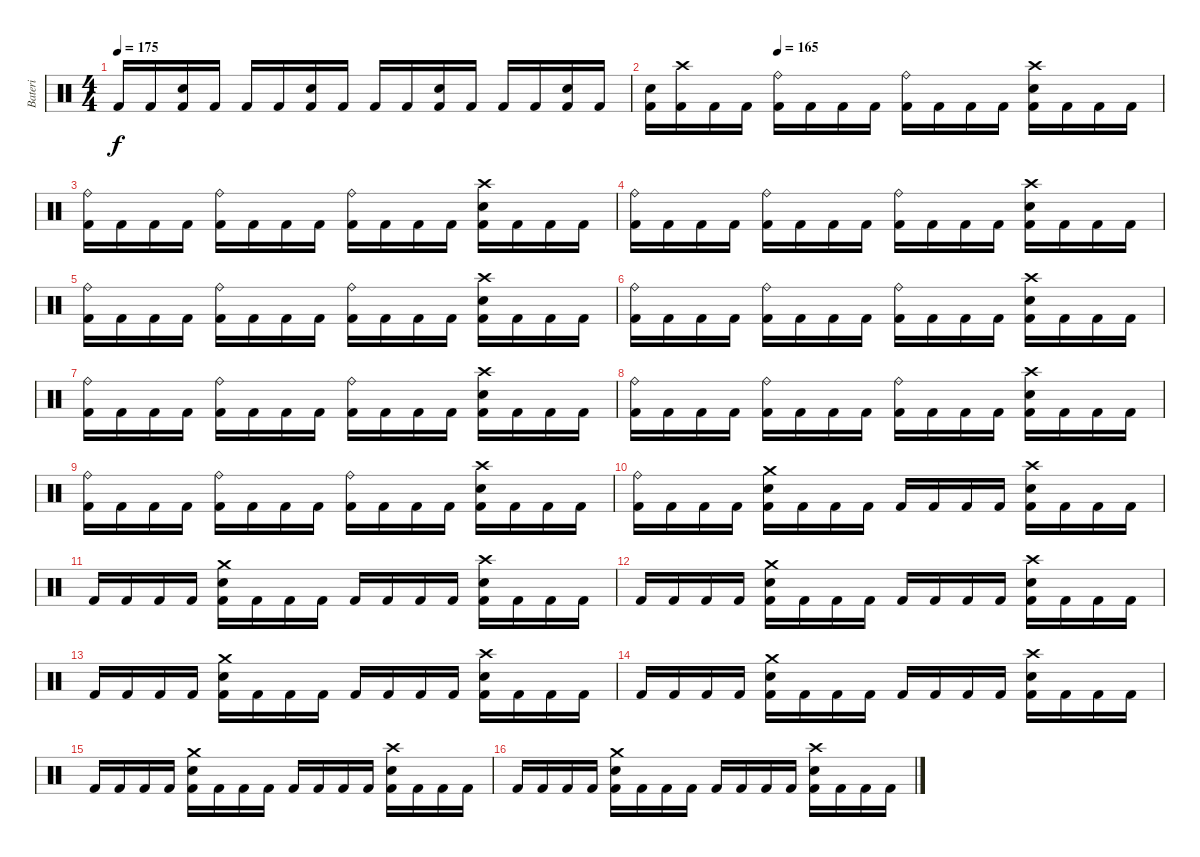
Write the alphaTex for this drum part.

\track ("Bateri" "Bateri") {instrument percussion}
\staff {score}
\articulation defaults
\ts (4 4)
\tempo 175
\clef neutral
\ks c "Kick (hit) 2".16{dy f} "Kick (hit) 2".16
("Snare (hit) 2" "Kick (hit) 2").16 "Kick (hit) 2".16 "Kick (hit) 2".16 "Kick (hit) 2".16 ("Snare (hit) 2" "Kick (hit) 2").16 "Kick (hit) 2".16 "Kick (hit) 2".16 "Kick (hit) 2".16 ("Snare (hit) 2" "Kick (hit) 2").16 "Kick (hit) 2".16 "Kick (hit) 2".16 "Kick (hit) 2".16 ("Snare (hit) 2" "Kick (hit) 2").16 "Kick (hit) 2".16 |
\section ("" "")
\tempo (165 0.25)
("Snare (hit) 2" "Kick (hit) 2").16 ("Crash high (hit)" "Kick (hit) 2").16 "Kick (hit) 2".16 "Kick (hit) 2".16 ("Ride (bell)" "Kick (hit) 2").16 "Kick (hit) 2".16 "Kick (hit) 2".16 "Kick (hit) 2".16 ("Ride (bell)" "Kick (hit) 2").16 "Kick (hit) 2".16 "Kick (hit) 2".16 "Kick (hit) 2".16 ("Snare (hit) 2" "Crash high (hit)" "Kick (hit) 2").16 "Kick (hit) 2".16 "Kick (hit) 2".16 "Kick (hit) 2".16 |
("Ride (bell)" "Kick (hit) 2").16 "Kick (hit) 2".16 "Kick (hit) 2".16 "Kick (hit) 2".16 ("Ride (bell)" "Kick (hit) 2").16 "Kick (hit) 2".16 "Kick (hit) 2".16 "Kick (hit) 2".16 ("Ride (bell)" "Kick (hit) 2").16 "Kick (hit) 2".16 "Kick (hit) 2".16 "Kick (hit) 2".16 ("Snare (hit) 2" "Crash high (hit)" "Kick (hit) 2").16 "Kick (hit) 2".16 "Kick (hit) 2".16 "Kick (hit) 2".16 |
("Ride (bell)" "Kick (hit) 2").16 "Kick (hit) 2".16 "Kick (hit) 2".16 "Kick (hit) 2".16 ("Ride (bell)" "Kick (hit) 2").16 "Kick (hit) 2".16 "Kick (hit) 2".16 "Kick (hit) 2".16 ("Ride (bell)" "Kick (hit) 2").16 "Kick (hit) 2".16 "Kick (hit) 2".16 "Kick (hit) 2".16 ("Snare (hit) 2" "Crash high (hit)" "Kick (hit) 2").16 "Kick (hit) 2".16 "Kick (hit) 2".16 "Kick (hit) 2".16 |
("Ride (bell)" "Kick (hit) 2").16 "Kick (hit) 2".16 "Kick (hit) 2".16 "Kick (hit) 2".16 ("Ride (bell)" "Kick (hit) 2").16 "Kick (hit) 2".16 "Kick (hit) 2".16 "Kick (hit) 2".16 ("Ride (bell)" "Kick (hit) 2").16 "Kick (hit) 2".16 "Kick (hit) 2".16 "Kick (hit) 2".16 ("Snare (hit) 2" "Crash high (hit)" "Kick (hit) 2").16 "Kick (hit) 2".16 "Kick (hit) 2".16 "Kick (hit) 2".16 |
("Ride (bell)" "Kick (hit) 2").16 "Kick (hit) 2".16 "Kick (hit) 2".16 "Kick (hit) 2".16 ("Ride (bell)" "Kick (hit) 2").16 "Kick (hit) 2".16 "Kick (hit) 2".16 "Kick (hit) 2".16 ("Ride (bell)" "Kick (hit) 2").16 "Kick (hit) 2".16 "Kick (hit) 2".16 "Kick (hit) 2".16 ("Snare (hit) 2" "Crash high (hit)" "Kick (hit) 2").16 "Kick (hit) 2".16 "Kick (hit) 2".16 "Kick (hit) 2".16 |
("Ride (bell)" "Kick (hit) 2").16 "Kick (hit) 2".16 "Kick (hit) 2".16 "Kick (hit) 2".16 ("Ride (bell)" "Kick (hit) 2").16 "Kick (hit) 2".16 "Kick (hit) 2".16 "Kick (hit) 2".16 ("Ride (bell)" "Kick (hit) 2").16 "Kick (hit) 2".16 "Kick (hit) 2".16 "Kick (hit) 2".16 ("Snare (hit) 2" "Crash high (hit)" "Kick (hit) 2").16 "Kick (hit) 2".16 "Kick (hit) 2".16 "Kick (hit) 2".16 |
("Ride (bell)" "Kick (hit) 2").16 "Kick (hit) 2".16 "Kick (hit) 2".16 "Kick (hit) 2".16 ("Ride (bell)" "Kick (hit) 2").16 "Kick (hit) 2".16 "Kick (hit) 2".16 "Kick (hit) 2".16 ("Ride (bell)" "Kick (hit) 2").16 "Kick (hit) 2".16 "Kick (hit) 2".16 "Kick (hit) 2".16 ("Snare (hit) 2" "Crash high (hit)" "Kick (hit) 2").16 "Kick (hit) 2".16 "Kick (hit) 2".16 "Kick (hit) 2".16 |
("Ride (bell)" "Kick (hit) 2").16 "Kick (hit) 2".16 "Kick (hit) 2".16 "Kick (hit) 2".16 ("Ride (bell)" "Kick (hit) 2").16 "Kick (hit) 2".16 "Kick (hit) 2".16 "Kick (hit) 2".16 ("Ride (bell)" "Kick (hit) 2").16 "Kick (hit) 2".16 "Kick (hit) 2".16 "Kick (hit) 2".16 ("Snare (hit) 2" "Crash high (hit)" "Kick (hit) 2").16 "Kick (hit) 2".16 "Kick (hit) 2".16 "Kick (hit) 2".16 |
("Ride (bell)" "Kick (hit) 2").16 "Kick (hit) 2".16 "Kick (hit) 2".16 "Kick (hit) 2".16 ("Crash medium (hit)" "Snare (hit) 2" "Kick (hit) 2").16 "Kick (hit) 2".16 "Kick (hit) 2".16 "Kick (hit) 2".16 "Kick (hit) 2".16 "Kick (hit) 2".16 "Kick (hit) 2".16 "Kick (hit) 2".16 ("Crash high (hit)" "Snare (hit) 2" "Kick (hit) 2").16 "Kick (hit) 2".16 "Kick (hit) 2".16 "Kick (hit) 2".16 |
"Kick (hit) 2".16 "Kick (hit) 2".16 "Kick (hit) 2".16 "Kick (hit) 2".16 ("Crash medium (hit)" "Snare (hit) 2" "Kick (hit) 2").16 "Kick (hit) 2".16 "Kick (hit) 2".16 "Kick (hit) 2".16 "Kick (hit) 2".16 "Kick (hit) 2".16 "Kick (hit) 2".16 "Kick (hit) 2".16 ("Crash high (hit)" "Snare (hit) 2" "Kick (hit) 2").16 "Kick (hit) 2".16 "Kick (hit) 2".16 "Kick (hit) 2".16 |
"Kick (hit) 2".16 "Kick (hit) 2".16 "Kick (hit) 2".16 "Kick (hit) 2".16 ("Crash medium (hit)" "Snare (hit) 2" "Kick (hit) 2").16 "Kick (hit) 2".16 "Kick (hit) 2".16 "Kick (hit) 2".16 "Kick (hit) 2".16 "Kick (hit) 2".16 "Kick (hit) 2".16 "Kick (hit) 2".16 ("Crash high (hit)" "Snare (hit) 2" "Kick (hit) 2").16 "Kick (hit) 2".16 "Kick (hit) 2".16 "Kick (hit) 2".16 |
"Kick (hit) 2".16 "Kick (hit) 2".16 "Kick (hit) 2".16 "Kick (hit) 2".16 ("Crash medium (hit)" "Snare (hit) 2" "Kick (hit) 2").16 "Kick (hit) 2".16 "Kick (hit) 2".16 "Kick (hit) 2".16 "Kick (hit) 2".16 "Kick (hit) 2".16 "Kick (hit) 2".16 "Kick (hit) 2".16 ("Crash high (hit)" "Snare (hit) 2" "Kick (hit) 2").16 "Kick (hit) 2".16 "Kick (hit) 2".16 "Kick (hit) 2".16 |
"Kick (hit) 2".16 "Kick (hit) 2".16 "Kick (hit) 2".16 "Kick (hit) 2".16 ("Crash medium (hit)" "Snare (hit) 2" "Kick (hit) 2").16 "Kick (hit) 2".16 "Kick (hit) 2".16 "Kick (hit) 2".16 "Kick (hit) 2".16 "Kick (hit) 2".16 "Kick (hit) 2".16 "Kick (hit) 2".16 ("Crash high (hit)" "Snare (hit) 2" "Kick (hit) 2").16 "Kick (hit) 2".16 "Kick (hit) 2".16 "Kick (hit) 2".16 |
"Kick (hit) 2".16 "Kick (hit) 2".16 "Kick (hit) 2".16 "Kick (hit) 2".16 ("Crash medium (hit)" "Snare (hit) 2" "Kick (hit) 2").16 "Kick (hit) 2".16 "Kick (hit) 2".16 "Kick (hit) 2".16 "Kick (hit) 2".16 "Kick (hit) 2".16 "Kick (hit) 2".16 "Kick (hit) 2".16 ("Crash high (hit)" "Snare (hit) 2" "Kick (hit) 2").16 "Kick (hit) 2".16 "Kick (hit) 2".16 "Kick (hit) 2".16 |
"Kick (hit) 2".16 "Kick (hit) 2".16 "Kick (hit) 2".16 "Kick (hit) 2".16 ("Crash medium (hit)" "Snare (hit) 2" "Kick (hit) 2").16 "Kick (hit) 2".16 "Kick (hit) 2".16 "Kick (hit) 2".16 "Kick (hit) 2".16 "Kick (hit) 2".16 "Kick (hit) 2".16 "Kick (hit) 2".16 ("Crash high (hit)" "Snare (hit) 2" "Kick (hit) 2").16 "Kick (hit) 2".16 "Kick (hit) 2".16 "Kick (hit) 2".16
